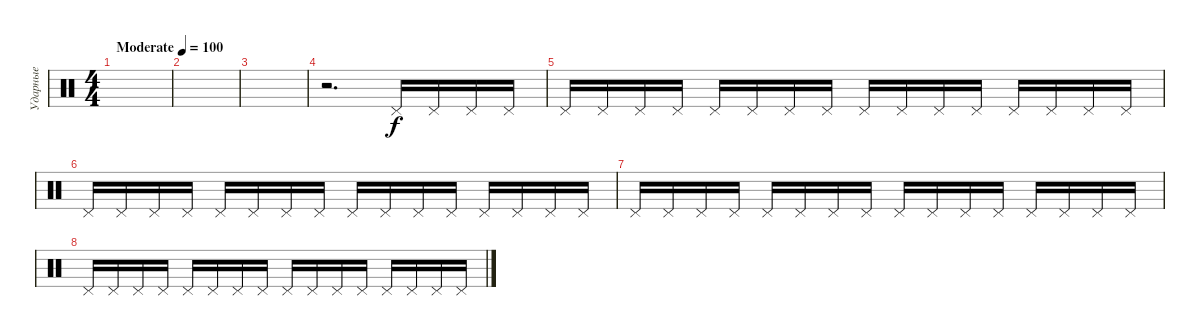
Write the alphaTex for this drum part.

\track ("Ударные" "Ударные") {solo instrument percussion}
\staff {score}
\articulation defaults
\ts (4 4)
\tempo (100 "Moderate")
\clef neutral
\ks c
|
|
|
r.2{d} "Pedal Hi-Hat (hit)".16 "Pedal Hi-Hat (hit)".16 "Pedal Hi-Hat (hit)".16 "Pedal Hi-Hat (hit)".16 |
"Pedal Hi-Hat (hit)".16 "Pedal Hi-Hat (hit)".16 "Pedal Hi-Hat (hit)".16 "Pedal Hi-Hat (hit)".16 "Pedal Hi-Hat (hit)".16 "Pedal Hi-Hat (hit)".16 "Pedal Hi-Hat (hit)".16 "Pedal Hi-Hat (hit)".16 "Pedal Hi-Hat (hit)".16 "Pedal Hi-Hat (hit)".16 "Pedal Hi-Hat (hit)".16 "Pedal Hi-Hat (hit)".16 "Pedal Hi-Hat (hit)".16 "Pedal Hi-Hat (hit)".16 "Pedal Hi-Hat (hit)".16 "Pedal Hi-Hat (hit)".16 |
"Pedal Hi-Hat (hit)".16 "Pedal Hi-Hat (hit)".16 "Pedal Hi-Hat (hit)".16 "Pedal Hi-Hat (hit)".16 "Pedal Hi-Hat (hit)".16 "Pedal Hi-Hat (hit)".16 "Pedal Hi-Hat (hit)".16 "Pedal Hi-Hat (hit)".16 "Pedal Hi-Hat (hit)".16 "Pedal Hi-Hat (hit)".16 "Pedal Hi-Hat (hit)".16 "Pedal Hi-Hat (hit)".16 "Pedal Hi-Hat (hit)".16 "Pedal Hi-Hat (hit)".16 "Pedal Hi-Hat (hit)".16 "Pedal Hi-Hat (hit)".16 |
"Pedal Hi-Hat (hit)".16 "Pedal Hi-Hat (hit)".16 "Pedal Hi-Hat (hit)".16 "Pedal Hi-Hat (hit)".16 "Pedal Hi-Hat (hit)".16 "Pedal Hi-Hat (hit)".16 "Pedal Hi-Hat (hit)".16 "Pedal Hi-Hat (hit)".16 "Pedal Hi-Hat (hit)".16 "Pedal Hi-Hat (hit)".16 "Pedal Hi-Hat (hit)".16 "Pedal Hi-Hat (hit)".16 "Pedal Hi-Hat (hit)".16 "Pedal Hi-Hat (hit)".16 "Pedal Hi-Hat (hit)".16 "Pedal Hi-Hat (hit)".16 |
"Pedal Hi-Hat (hit)".16 "Pedal Hi-Hat (hit)".16 "Pedal Hi-Hat (hit)".16 "Pedal Hi-Hat (hit)".16 "Pedal Hi-Hat (hit)".16 "Pedal Hi-Hat (hit)".16 "Pedal Hi-Hat (hit)".16 "Pedal Hi-Hat (hit)".16 "Pedal Hi-Hat (hit)".16 "Pedal Hi-Hat (hit)".16 "Pedal Hi-Hat (hit)".16 "Pedal Hi-Hat (hit)".16 "Pedal Hi-Hat (hit)".16 "Pedal Hi-Hat (hit)".16 "Pedal Hi-Hat (hit)".16 "Pedal Hi-Hat (hit)".16
